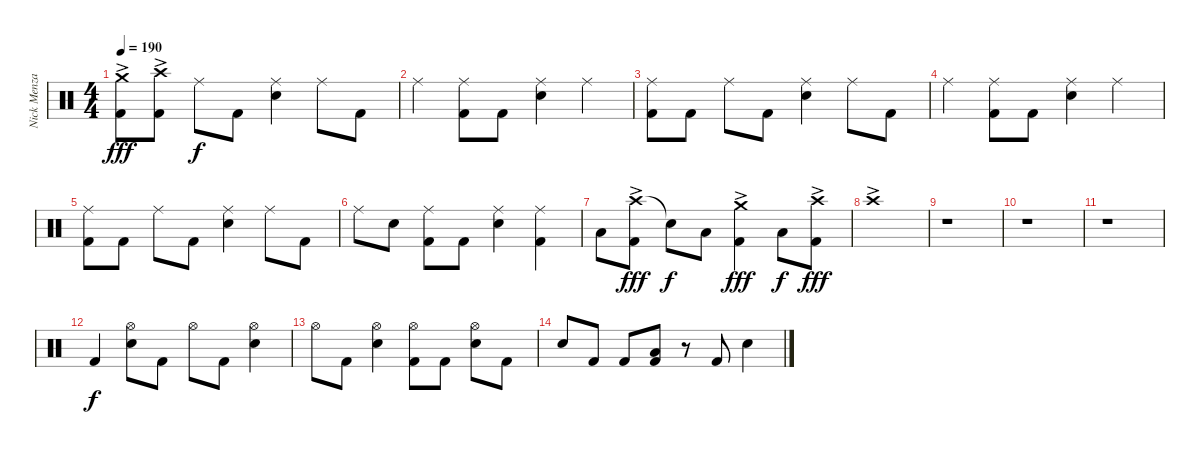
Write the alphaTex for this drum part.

\track ("Nick Menza" "Nick Menza") {instrument percussion}
\staff {score}
\articulation defaults
\ts (4 4)
\tempo 190
\clef neutral
\ks c
("Crash medium (hit)"{ac} "Kick (hit) 2").8{dy fff} ("Crash high (hit)"{ac} "Kick (hit) 2").8 "Ride (middle)".8{dy f} "Kick (hit) 2".8 ("Ride (middle)" "Snare (hit) 2").4 "Ride (middle)".8 "Kick (hit) 2".8 |
"Ride (middle)".4 ("Ride (middle)" "Kick (hit) 2").8 "Kick (hit) 2".8 ("Ride (middle)" "Snare (hit) 2").4 "Ride (middle)".4 |
("Ride (middle)" "Kick (hit) 2").8 "Kick (hit) 2".8 "Ride (middle)".8 "Kick (hit) 2".8 ("Ride (middle)" "Snare (hit) 2").4 "Ride (middle)".8 "Kick (hit) 2".8 |
"Ride (middle)".4 ("Ride (middle)" "Kick (hit) 2").8 "Kick (hit) 2".8 ("Ride (middle)" "Snare (hit) 2").4 "Ride (middle)".4 |
("Ride (middle)" "Kick (hit) 2").8 "Kick (hit) 2".8 "Ride (middle)".8 "Kick (hit) 2".8 ("Ride (middle)" "Snare (hit) 2").4 "Ride (middle)".8 "Kick (hit) 2".8 |
"Ride (middle)".8 "Snare (hit) 2".8 ("Ride (middle)" "Kick (hit) 2").8 "Kick (hit) 2".8 ("Ride (middle)" "Snare (hit) 2").4 ("Ride (middle)" "Kick (hit) 2").4 |
"Low Tom (hit)".8 ("Crash high (hit)"{ac} "Kick (hit) 2").8{dy fff} "Snare (hit)"{t}.8{dy f} "Low Tom (hit)".8 ("Crash medium (hit)"{ac} "Kick (hit) 2").4{dy fff} "Low Tom (hit)".8{dy f} ("Crash high (hit)"{ac} "Kick (hit) 2").8{dy fff} |
"Crash high (hit)"{ac}.1 |
r.1 |
r.1 |
r.1 |
"Kick (hit) 2".4{dy f} ("Hi-Hat (open)" "Snare (hit) 2").8 "Kick (hit) 2".8 "Hi-Hat (open)".8 "Kick (hit) 2".8 ("Hi-Hat (open)" "Snare (hit) 2").4 |
"Hi-Hat (open)".8 "Kick (hit) 2".8 ("Hi-Hat (open)" "Snare (hit) 2").4 ("Hi-Hat (open)" "Kick (hit) 2").8 "Kick (hit) 2".8 ("Hi-Hat (open)" "Snare (hit) 2").8 "Kick (hit) 2".8 |
"Snare (hit) 2".8 "Kick (hit) 2".8 "Kick (hit) 2".8 ("Low Floor Tom (hit)" "Kick (hit) 2").8 r.8 "Kick (hit) 2".8 "Snare (hit) 2".4
